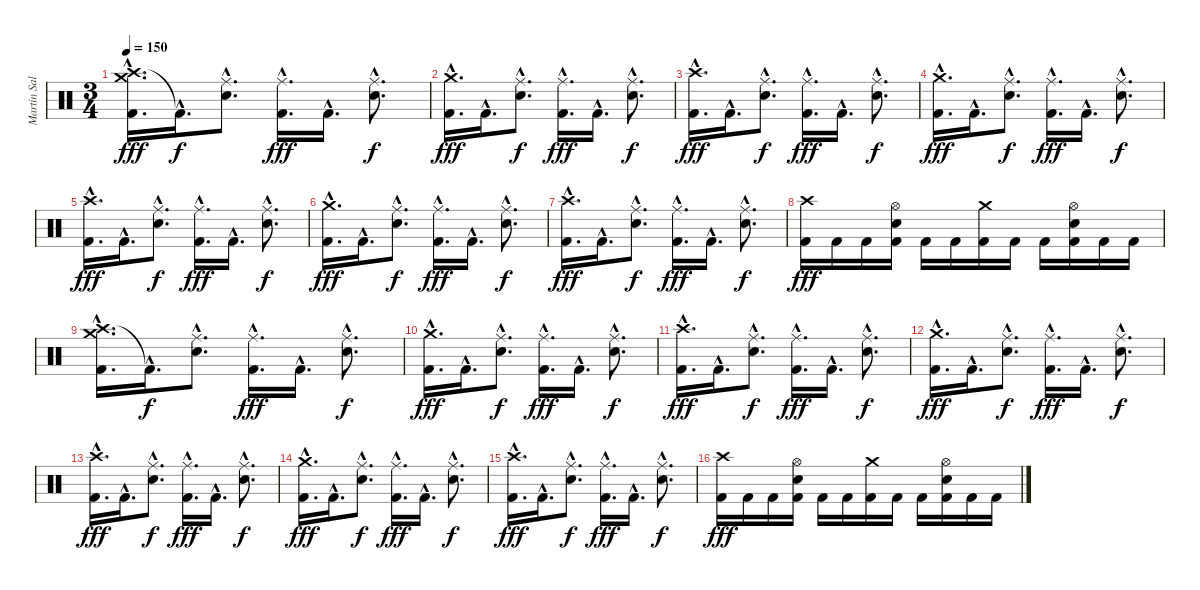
\track ("Martín Salariato" "Martín Sal") {instrument percussion}
\staff {score}
\articulation defaults
\ts (3 4)
\tempo 150
\clef neutral
\ks c
("Crash high (hit)"{hac} "Crash medium (hit)"{hac} "Kick (hit) 2"{hac}).16{d dy fff} "Kick (hit) 2"{hac t}.16{d dy f} ("Ride (middle)"{hac} "Snare (hit) 2"{hac}).8{d} ("Ride (middle)"{hac} "Kick (hit) 2"{hac}).16{d dy fff} "Kick (hit) 2"{hac}.16{d} ("Ride (middle)"{hac} "Snare (hit) 2"{hac}).8{d dy f} |
("Crash medium (hit)"{hac} "Kick (hit) 2"{hac}).16{d dy fff} "Kick (hit) 2"{hac}.16{d} ("Ride (middle)"{hac} "Snare (hit) 2"{hac}).8{d dy f} ("Ride (middle)"{hac} "Kick (hit) 2"{hac}).16{d dy fff} "Kick (hit) 2"{hac}.16{d} ("Ride (middle)"{hac} "Snare (hit) 2"{hac}).8{d dy f} |
("Crash high (hit)"{hac} "Kick (hit) 2"{hac}).16{d dy fff} "Kick (hit) 2"{hac}.16{d} ("Ride (middle)"{hac} "Snare (hit) 2"{hac}).8{d dy f} ("Ride (middle)"{hac} "Kick (hit) 2"{hac}).16{d dy fff} "Kick (hit) 2"{hac}.16{d} ("Ride (middle)"{hac} "Snare (hit) 2"{hac}).8{d dy f} |
("Crash medium (hit)"{hac} "Kick (hit) 2"{hac}).16{d dy fff} "Kick (hit) 2"{hac}.16{d} ("Ride (middle)"{hac} "Snare (hit) 2"{hac}).8{d dy f} ("Ride (middle)"{hac} "Kick (hit) 2"{hac}).16{d dy fff} "Kick (hit) 2"{hac}.16{d} ("Ride (middle)"{hac} "Snare (hit) 2"{hac}).8{d dy f} |
("Crash high (hit)"{hac} "Kick (hit) 2"{hac}).16{d dy fff} "Kick (hit) 2"{hac}.16{d} ("Ride (middle)"{hac} "Snare (hit) 2"{hac}).8{d dy f} ("Ride (middle)"{hac} "Kick (hit) 2"{hac}).16{d dy fff} "Kick (hit) 2"{hac}.16{d} ("Ride (middle)"{hac} "Snare (hit) 2"{hac}).8{d dy f} |
("Crash medium (hit)"{hac} "Kick (hit) 2"{hac}).16{d dy fff} "Kick (hit) 2"{hac}.16{d} ("Ride (middle)"{hac} "Snare (hit) 2"{hac}).8{d dy f} ("Ride (middle)"{hac} "Kick (hit) 2"{hac}).16{d dy fff} "Kick (hit) 2"{hac}.16{d} ("Ride (middle)"{hac} "Snare (hit) 2"{hac}).8{d dy f} |
("Crash high (hit)"{hac} "Kick (hit) 2"{hac}).16{d dy fff} "Kick (hit) 2"{hac}.16{d} ("Ride (middle)"{hac} "Snare (hit) 2"{hac}).8{d dy f} ("Ride (middle)"{hac} "Kick (hit) 2"{hac}).16{d dy fff} "Kick (hit) 2"{hac}.16{d} ("Ride (middle)"{hac} "Snare (hit) 2"{hac}).8{d dy f} |
("Crash high (hit)" "Kick (hit) 2").16{dy fff} "Kick (hit) 2".16 "Kick (hit) 2".16 ("Hi-Hat (open)" "Snare (hit) 2" "Kick (hit) 2").16 "Kick (hit) 2".16 "Kick (hit) 2".16 ("Crash medium (hit)" "Kick (hit) 2").16 "Kick (hit) 2".16 "Kick (hit) 2".16 ("Hi-Hat (open)" "Snare (hit) 2" "Kick (hit) 2").16 "Kick (hit) 2".16 "Kick (hit) 2".16 |
("Crash high (hit)"{hac} "Crash medium (hit)"{hac} "Kick (hit) 2"{hac}).16{d} "Kick (hit) 2"{hac t}.16{d dy f} ("Ride (middle)"{hac} "Snare (hit) 2"{hac}).8{d} ("Ride (middle)"{hac} "Kick (hit) 2"{hac}).16{d dy fff} "Kick (hit) 2"{hac}.16{d} ("Ride (middle)"{hac} "Snare (hit) 2"{hac}).8{d dy f} |
("Crash medium (hit)"{hac} "Kick (hit) 2"{hac}).16{d dy fff} "Kick (hit) 2"{hac}.16{d} ("Ride (middle)"{hac} "Snare (hit) 2"{hac}).8{d dy f} ("Ride (middle)"{hac} "Kick (hit) 2"{hac}).16{d dy fff} "Kick (hit) 2"{hac}.16{d} ("Ride (middle)"{hac} "Snare (hit) 2"{hac}).8{d dy f} |
("Crash high (hit)"{hac} "Kick (hit) 2"{hac}).16{d dy fff} "Kick (hit) 2"{hac}.16{d} ("Ride (middle)"{hac} "Snare (hit) 2"{hac}).8{d dy f} ("Ride (middle)"{hac} "Kick (hit) 2"{hac}).16{d dy fff} "Kick (hit) 2"{hac}.16{d} ("Ride (middle)"{hac} "Snare (hit) 2"{hac}).8{d dy f} |
("Crash medium (hit)"{hac} "Kick (hit) 2"{hac}).16{d dy fff} "Kick (hit) 2"{hac}.16{d} ("Ride (middle)"{hac} "Snare (hit) 2"{hac}).8{d dy f} ("Ride (middle)"{hac} "Kick (hit) 2"{hac}).16{d dy fff} "Kick (hit) 2"{hac}.16{d} ("Ride (middle)"{hac} "Snare (hit) 2"{hac}).8{d dy f} |
("Crash high (hit)"{hac} "Kick (hit) 2"{hac}).16{d dy fff} "Kick (hit) 2"{hac}.16{d} ("Ride (middle)"{hac} "Snare (hit) 2"{hac}).8{d dy f} ("Ride (middle)"{hac} "Kick (hit) 2"{hac}).16{d dy fff} "Kick (hit) 2"{hac}.16{d} ("Ride (middle)"{hac} "Snare (hit) 2"{hac}).8{d dy f} |
("Crash medium (hit)"{hac} "Kick (hit) 2"{hac}).16{d dy fff} "Kick (hit) 2"{hac}.16{d} ("Ride (middle)"{hac} "Snare (hit) 2"{hac}).8{d dy f} ("Ride (middle)"{hac} "Kick (hit) 2"{hac}).16{d dy fff} "Kick (hit) 2"{hac}.16{d} ("Ride (middle)"{hac} "Snare (hit) 2"{hac}).8{d dy f} |
("Crash high (hit)"{hac} "Kick (hit) 2"{hac}).16{d dy fff} "Kick (hit) 2"{hac}.16{d} ("Ride (middle)"{hac} "Snare (hit) 2"{hac}).8{d dy f} ("Ride (middle)"{hac} "Kick (hit) 2"{hac}).16{d dy fff} "Kick (hit) 2"{hac}.16{d} ("Ride (middle)"{hac} "Snare (hit) 2"{hac}).8{d dy f} |
("Crash high (hit)" "Kick (hit) 2").16{dy fff} "Kick (hit) 2".16 "Kick (hit) 2".16 ("Hi-Hat (open)" "Snare (hit) 2" "Kick (hit) 2").16 "Kick (hit) 2".16 "Kick (hit) 2".16 ("Crash medium (hit)" "Kick (hit) 2").16 "Kick (hit) 2".16 "Kick (hit) 2".16 ("Hi-Hat (open)" "Snare (hit) 2" "Kick (hit) 2").16 "Kick (hit) 2".16 "Kick (hit) 2".16
